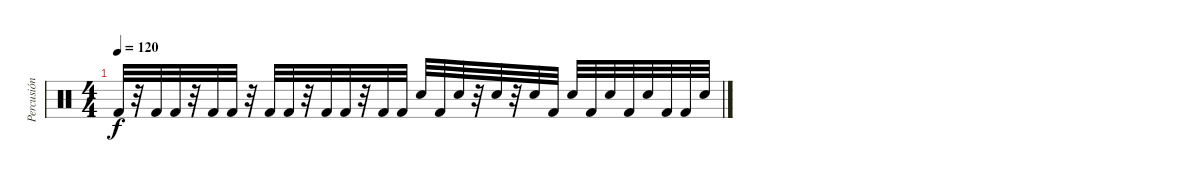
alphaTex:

\track ("Percusión" "Percusión") {instrument percussion}
\staff {score}
\articulation defaults
\ts (4 4)
\tempo 120
\clef neutral
\ks c "Kick (hit) 2".32{dy f volume 16}
r.32 "Kick (hit) 2".32{volume 10} "Kick (hit) 2".32 r.32 "Kick (hit) 2".32{volume 7} "Kick (hit) 2".32 r.32 "Kick (hit) 2".32{volume 4} "Kick (hit) 2".32 r.32 "Kick (hit) 2".32 "Kick (hit) 2".32 r.32 "Kick (hit) 2".32{volume 2} "Kick (hit) 2".32 "Electric Snare (hit)".32 "Kick (hit) 2".32 "Electric Snare (hit)".32 r.32 "Electric Snare (hit)".32 r.32 "Electric Snare (hit)".32{volume 4} "Kick (hit) 2".32 "Electric Snare (hit)".32 "Kick (hit) 2".32 "Electric Snare (hit)".32 "Kick (hit) 2".32 "Electric Snare (hit)".32{volume 8} "Kick (hit) 2".32 "Kick (hit) 2".32 "Electric Snare (hit)".32{volume 16}
